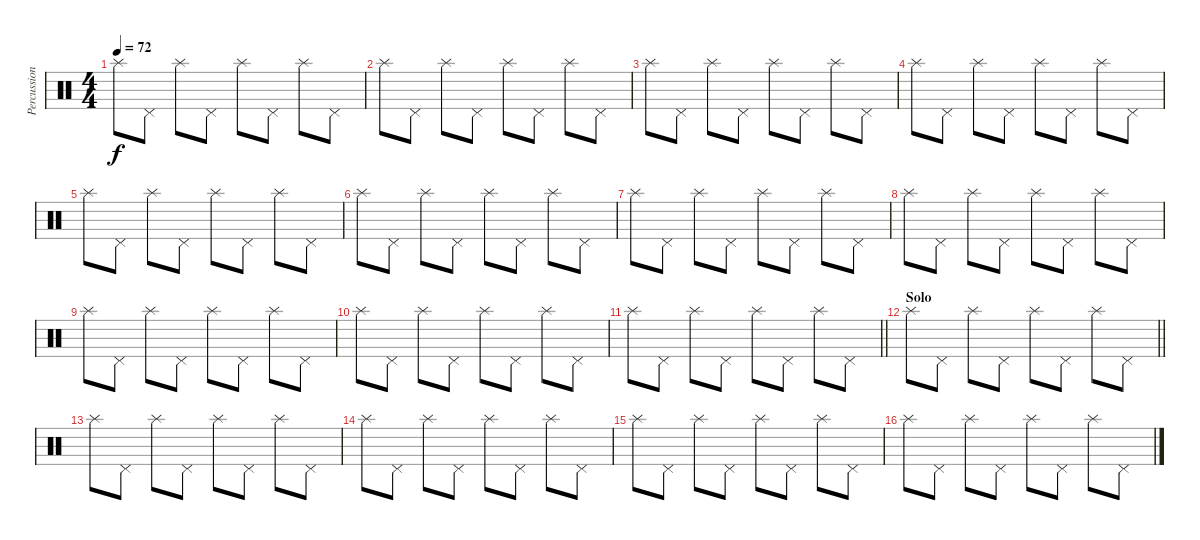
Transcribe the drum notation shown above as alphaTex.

\track ("Percussion" "Percussion") {instrument percussion}
\staff {score}
\articulation defaults
\ts (4 4)
\tempo 72
\clef neutral
\ks c "Splash (hit)".8{dy f} "Pedal Hi-Hat (hit)".8 "Splash (hit)".8 "Pedal Hi-Hat (hit)".8 "Splash (hit)".8 "Pedal Hi-Hat (hit)".8 "Splash (hit)".8 "Pedal Hi-Hat (hit)".8
|
"Splash (hit)".8 "Pedal Hi-Hat (hit)".8 "Splash (hit)".8 "Pedal Hi-Hat (hit)".8 "Splash (hit)".8 "Pedal Hi-Hat (hit)".8 "Splash (hit)".8 "Pedal Hi-Hat (hit)".8 |
"Splash (hit)".8 "Pedal Hi-Hat (hit)".8 "Splash (hit)".8 "Pedal Hi-Hat (hit)".8 "Splash (hit)".8 "Pedal Hi-Hat (hit)".8 "Splash (hit)".8 "Pedal Hi-Hat (hit)".8 |
"Splash (hit)".8 "Pedal Hi-Hat (hit)".8 "Splash (hit)".8 "Pedal Hi-Hat (hit)".8 "Splash (hit)".8 "Pedal Hi-Hat (hit)".8 "Splash (hit)".8 "Pedal Hi-Hat (hit)".8 |
"Splash (hit)".8 "Pedal Hi-Hat (hit)".8 "Splash (hit)".8 "Pedal Hi-Hat (hit)".8 "Splash (hit)".8 "Pedal Hi-Hat (hit)".8 "Splash (hit)".8 "Pedal Hi-Hat (hit)".8 |
"Splash (hit)".8 "Pedal Hi-Hat (hit)".8 "Splash (hit)".8 "Pedal Hi-Hat (hit)".8 "Splash (hit)".8 "Pedal Hi-Hat (hit)".8 "Splash (hit)".8 "Pedal Hi-Hat (hit)".8 |
"Splash (hit)".8 "Pedal Hi-Hat (hit)".8 "Splash (hit)".8 "Pedal Hi-Hat (hit)".8 "Splash (hit)".8 "Pedal Hi-Hat (hit)".8 "Splash (hit)".8 "Pedal Hi-Hat (hit)".8 |
"Splash (hit)".8 "Pedal Hi-Hat (hit)".8 "Splash (hit)".8 "Pedal Hi-Hat (hit)".8 "Splash (hit)".8 "Pedal Hi-Hat (hit)".8 "Splash (hit)".8 "Pedal Hi-Hat (hit)".8 |
"Splash (hit)".8 "Pedal Hi-Hat (hit)".8 "Splash (hit)".8 "Pedal Hi-Hat (hit)".8 "Splash (hit)".8 "Pedal Hi-Hat (hit)".8 "Splash (hit)".8 "Pedal Hi-Hat (hit)".8 |
"Splash (hit)".8 "Pedal Hi-Hat (hit)".8 "Splash (hit)".8 "Pedal Hi-Hat (hit)".8 "Splash (hit)".8 "Pedal Hi-Hat (hit)".8 "Splash (hit)".8 "Pedal Hi-Hat (hit)".8 |
\barLineRight lightlight "Splash (hit)".8 "Pedal Hi-Hat (hit)".8 "Splash (hit)".8 "Pedal Hi-Hat (hit)".8 "Splash (hit)".8 "Pedal Hi-Hat (hit)".8 "Splash (hit)".8 "Pedal Hi-Hat (hit)".8
|
\section ("" "Solo")
\barLineRight lightlight "Splash (hit)".8 "Pedal Hi-Hat (hit)".8 "Splash (hit)".8 "Pedal Hi-Hat (hit)".8 "Splash (hit)".8 "Pedal Hi-Hat (hit)".8 "Splash (hit)".8 "Pedal Hi-Hat (hit)".8
|
\section ("" "")
"Splash (hit)".8 "Pedal Hi-Hat (hit)".8 "Splash (hit)".8 "Pedal Hi-Hat (hit)".8 "Splash (hit)".8 "Pedal Hi-Hat (hit)".8 "Splash (hit)".8 "Pedal Hi-Hat (hit)".8 |
"Splash (hit)".8 "Pedal Hi-Hat (hit)".8 "Splash (hit)".8 "Pedal Hi-Hat (hit)".8 "Splash (hit)".8 "Pedal Hi-Hat (hit)".8 "Splash (hit)".8 "Pedal Hi-Hat (hit)".8 |
"Splash (hit)".8 "Pedal Hi-Hat (hit)".8 "Splash (hit)".8 "Pedal Hi-Hat (hit)".8 "Splash (hit)".8 "Pedal Hi-Hat (hit)".8 "Splash (hit)".8 "Pedal Hi-Hat (hit)".8 |
"Splash (hit)".8 "Pedal Hi-Hat (hit)".8 "Splash (hit)".8 "Pedal Hi-Hat (hit)".8 "Splash (hit)".8 "Pedal Hi-Hat (hit)".8 "Splash (hit)".8 "Pedal Hi-Hat (hit)".8
